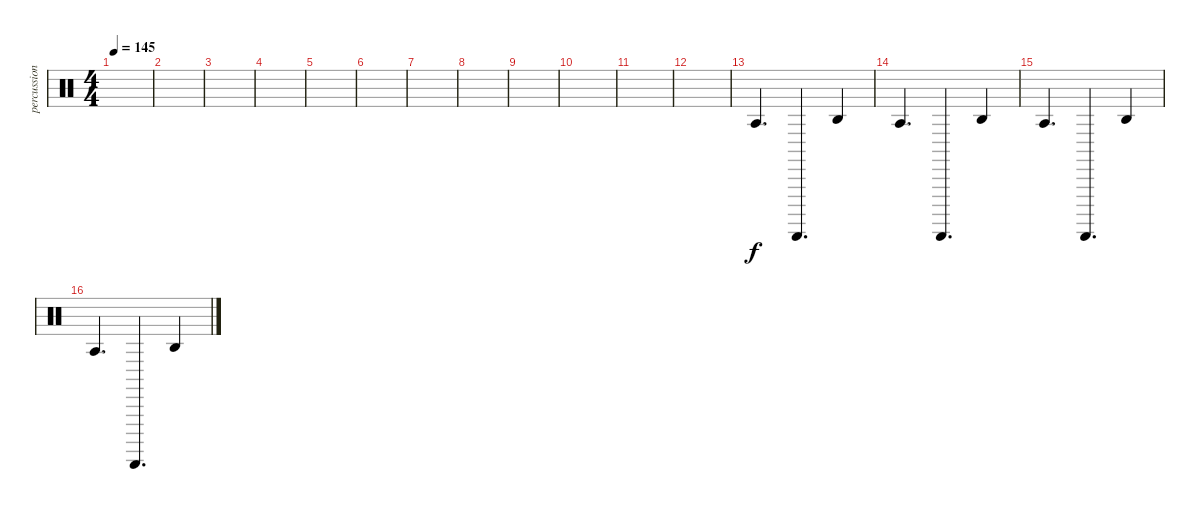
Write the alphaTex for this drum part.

\track ("percussion" "percussion") {instrument percussion}
\staff {score}
\articulation defaults
\ts (4 4)
\tempo 145
\clef neutral
\ks c
|
|
|
|
|
|
|
|
|
|
|
|
"Agogo tow (hit)".4{d} "Guiro (scrap-return)".4{d} "Agogo high (hit)".4 |
"Agogo tow (hit)".4{d} "Guiro (scrap-return)".4{d} "Agogo high (hit)".4 |
"Agogo tow (hit)".4{d} "Guiro (scrap-return)".4{d} "Agogo high (hit)".4 |
"Agogo tow (hit)".4{d} "Guiro (scrap-return)".4{d} "Agogo high (hit)".4
